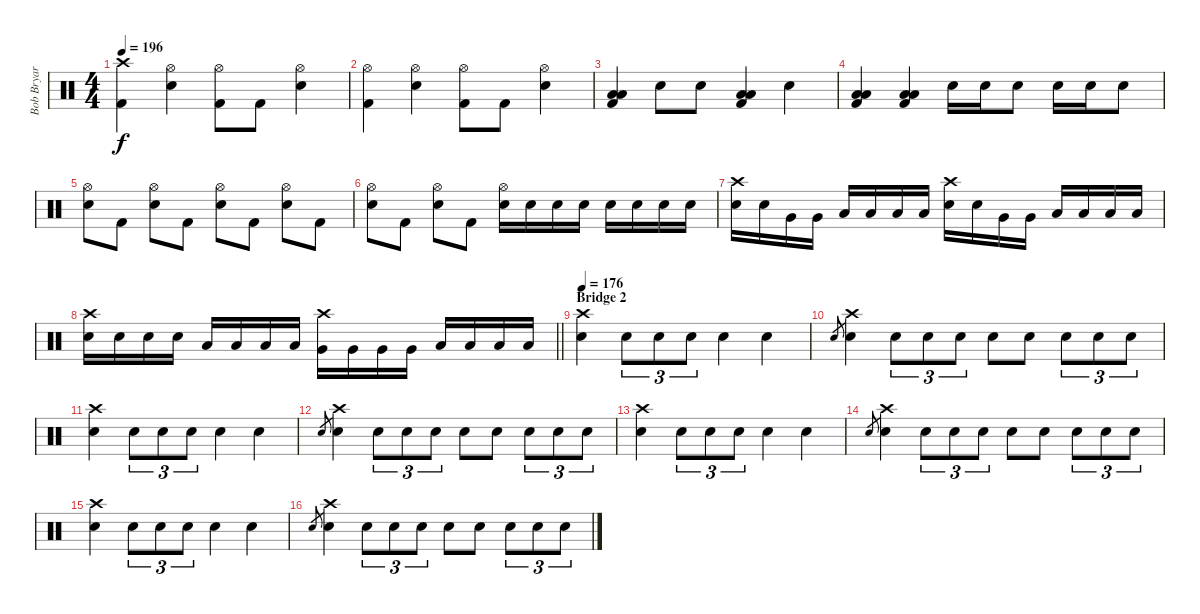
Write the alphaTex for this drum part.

\track ("Bob Bryar (percussion)" "Bob Bryar ") {instrument percussion}
\staff {score}
\articulation defaults
\ts (4 4)
\tempo 196
\clef neutral
\ks c
("Crash high (hit)" "Kick (hit) 2").4{dy f} ("Hi-Hat (open)" "Electric Snare (hit)").4 ("Hi-Hat (open)" "Kick (hit) 2").8 "Kick (hit) 2".8 ("Hi-Hat (open)" "Electric Snare (hit)").4 |
("Hi-Hat (open)" "Kick (hit) 2").4 ("Hi-Hat (open)" "Electric Snare (hit)").4 ("Hi-Hat (open)" "Kick (hit) 2").8 "Kick (hit) 2".8 ("Hi-Hat (open)" "Electric Snare (hit)").4 |
("Low Floor Tom (hit)" "Low Floor Tom (hit)" "Kick (hit) 2").4 "Electric Snare (hit)".8 "Electric Snare (hit)".8 ("Low Floor Tom (hit)" "Low Floor Tom (hit)" "Kick (hit) 2").4 "Electric Snare (hit)".4 |
("Low Floor Tom (hit)" "Low Floor Tom (hit)" "Kick (hit) 2").4 ("Low Floor Tom (hit)" "Low Floor Tom (hit)" "Kick (hit) 2").4 "Electric Snare (hit)".16 "Electric Snare (hit)".16 "Electric Snare (hit)".8 "Electric Snare (hit)".16 "Electric Snare (hit)".16 "Electric Snare (hit)".8 |
("Hi-Hat (open)" "Electric Snare (hit)").8 "Kick (hit) 2".8 ("Hi-Hat (open)" "Electric Snare (hit)").8 "Kick (hit) 2".8 ("Hi-Hat (open)" "Electric Snare (hit)").8 "Kick (hit) 2".8 ("Hi-Hat (open)" "Electric Snare (hit)").8 "Kick (hit) 2".8 |
("Hi-Hat (open)" "Electric Snare (hit)").8 "Kick (hit) 2".8 ("Hi-Hat (open)" "Electric Snare (hit)").8 "Kick (hit) 2".8 ("Hi-Hat (open)" "Electric Snare (hit)").16 "Electric Snare (hit)".16 "Electric Snare (hit)".16 "Electric Snare (hit)".16 "Electric Snare (hit)".16 "Electric Snare (hit)".16 "Electric Snare (hit)".16 "Electric Snare (hit)".16 |
("Crash high (hit)" "Electric Snare (hit)").16 "Electric Snare (hit)".16 "Very Low Tom (hit)".16 "Very Low Tom (hit)".16 "Low Floor Tom (hit)".16 "Low Floor Tom (hit)".16 "Low Floor Tom (hit)".16 "Low Floor Tom (hit)".16 ("Crash high (hit)" "Electric Snare (hit)").16 "Electric Snare (hit)".16 "Very Low Tom (hit)".16 "Very Low Tom (hit)".16 "Low Floor Tom (hit)".16 "Low Floor Tom (hit)".16 "Low Floor Tom (hit)".16 "Low Floor Tom (hit)".16 |
\barLineRight lightlight
("Crash high (hit)" "Electric Snare (hit)").16 "Electric Snare (hit)".16 "Electric Snare (hit)".16 "Electric Snare (hit)".16 "Low Tom (hit)".16 "Low Tom (hit)".16 "Low Tom (hit)".16 "Low Tom (hit)".16 ("Crash high (hit)" "Very Low Tom (hit)").16 "Very Low Tom (hit)".16 "Very Low Tom (hit)".16 "Very Low Tom (hit)".16 "Low Floor Tom (hit)".16 "Low Floor Tom (hit)".16 "Low Floor Tom (hit)".16 "Low Floor Tom (hit)".16 |
\section ("" "Bridge 2")
\tempo 176
("Crash high (hit)" "Electric Snare (hit)").4 "Electric Snare (hit)".8{tu (3 2)} "Electric Snare (hit)".8{tu (3 2)} "Electric Snare (hit)".8{tu (3 2)} "Electric Snare (hit)".4 "Electric Snare (hit)".4 |
"Electric Snare (hit)".8{gr} ("Crash high (hit)" "Electric Snare (hit)").4 "Electric Snare (hit)".8{tu (3 2)} "Electric Snare (hit)".8{tu (3 2)} "Electric Snare (hit)".8{tu (3 2)} "Electric Snare (hit)".8 "Electric Snare (hit)".8 "Electric Snare (hit)".8{tu (3 2)} "Electric Snare (hit)".8{tu (3 2)} "Electric Snare (hit)".8{tu (3 2)} |
("Crash high (hit)" "Electric Snare (hit)").4 "Electric Snare (hit)".8{tu (3 2)} "Electric Snare (hit)".8{tu (3 2)} "Electric Snare (hit)".8{tu (3 2)} "Electric Snare (hit)".4 "Electric Snare (hit)".4 |
"Electric Snare (hit)".8{gr} ("Crash high (hit)" "Electric Snare (hit)").4 "Electric Snare (hit)".8{tu (3 2)} "Electric Snare (hit)".8{tu (3 2)} "Electric Snare (hit)".8{tu (3 2)} "Electric Snare (hit)".8 "Electric Snare (hit)".8 "Electric Snare (hit)".8{tu (3 2)} "Electric Snare (hit)".8{tu (3 2)} "Electric Snare (hit)".8{tu (3 2)} |
("Crash high (hit)" "Electric Snare (hit)").4 "Electric Snare (hit)".8{tu (3 2)} "Electric Snare (hit)".8{tu (3 2)} "Electric Snare (hit)".8{tu (3 2)} "Electric Snare (hit)".4 "Electric Snare (hit)".4 |
"Electric Snare (hit)".8{gr} ("Crash high (hit)" "Electric Snare (hit)").4 "Electric Snare (hit)".8{tu (3 2)} "Electric Snare (hit)".8{tu (3 2)} "Electric Snare (hit)".8{tu (3 2)} "Electric Snare (hit)".8 "Electric Snare (hit)".8 "Electric Snare (hit)".8{tu (3 2)} "Electric Snare (hit)".8{tu (3 2)} "Electric Snare (hit)".8{tu (3 2)} |
("Crash high (hit)" "Electric Snare (hit)").4 "Electric Snare (hit)".8{tu (3 2)} "Electric Snare (hit)".8{tu (3 2)} "Electric Snare (hit)".8{tu (3 2)} "Electric Snare (hit)".4 "Electric Snare (hit)".4 |
"Electric Snare (hit)".8{gr} ("Crash high (hit)" "Electric Snare (hit)").4 "Electric Snare (hit)".8{tu (3 2)} "Electric Snare (hit)".8{tu (3 2)} "Electric Snare (hit)".8{tu (3 2)} "Electric Snare (hit)".8 "Electric Snare (hit)".8 "Electric Snare (hit)".8{tu (3 2)} "Electric Snare (hit)".8{tu (3 2)} "Electric Snare (hit)".8{tu (3 2)}
